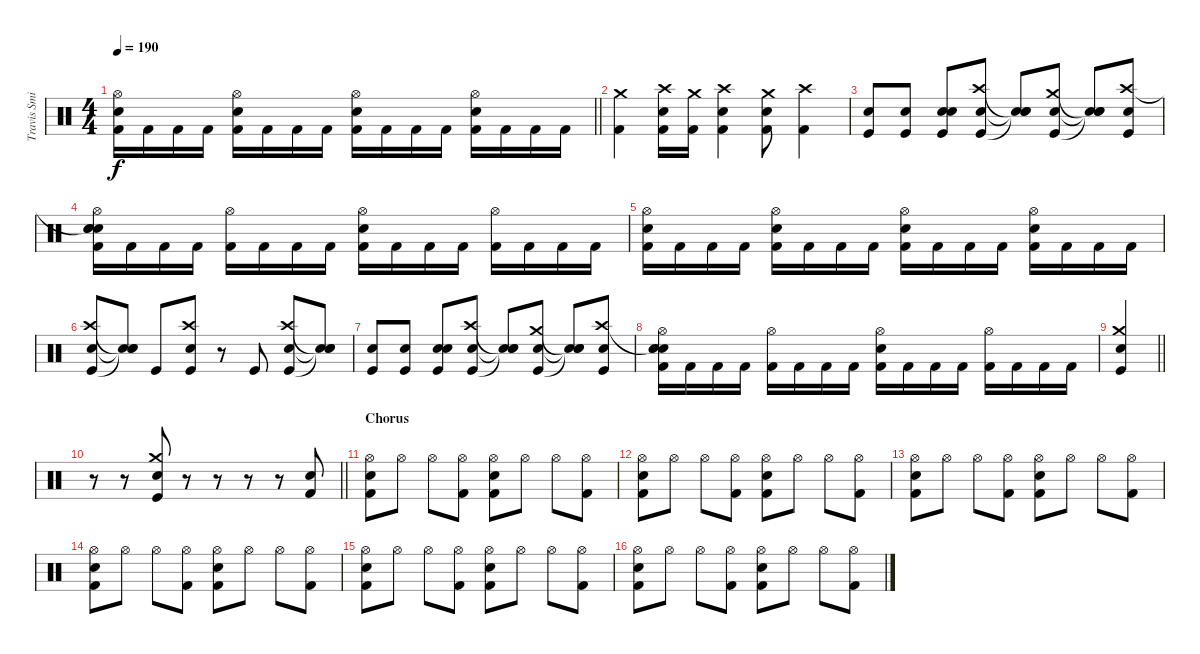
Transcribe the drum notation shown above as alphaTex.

\track ("Travis Smith" "Travis Smi") {instrument percussion}
\staff {score}
\articulation defaults
\ts (4 4)
\tempo 190
\clef neutral
\barLineRight lightlight
\ks c
("Hi-Hat (open)" "Electric Snare (hit)" "Kick (hit) 2").16{dy f} "Kick (hit) 2".16 "Kick (hit) 2".16 "Kick (hit) 2".16 ("Hi-Hat (open)" "Electric Snare (hit)" "Kick (hit) 2").16 "Kick (hit) 2".16 "Kick (hit) 2".16 "Kick (hit) 2".16 ("Hi-Hat (open)" "Electric Snare (hit)" "Kick (hit) 2").16 "Kick (hit) 2".16 "Kick (hit) 2".16 "Kick (hit) 2".16 ("Hi-Hat (open)" "Electric Snare (hit)" "Kick (hit) 2").16 "Kick (hit) 2".16 "Kick (hit) 2".16 "Kick (hit) 2".16 |
("Crash medium (hit)" "Kick (hit) 2").4 ("Crash high (hit)" "Electric Snare (hit)" "Kick (hit) 2").16 ("Crash medium (hit)" "Kick (hit) 2").16 ("Crash high (hit)" "Electric Snare (hit)" "Kick (hit) 2").4 ("Crash medium (hit)" "Electric Snare (hit)" "Kick (hit) 2").8 ("Crash high (hit)" "Kick (hit) 2").4 |
("Snare (hit) 2" "Kick (hit)").8 ("Snare (hit) 2" "Kick (hit)").8 ("Electric Snare (hit)" "Snare (hit) 2" "Kick (hit)").8 ("Crash high (hit)" "Electric Snare (hit)" "Kick (hit)").8 ("Snare (hit)"{t} "Snare (hit)"{t} "Snare (hit)"{t}).8 ("Crash medium (hit)" "Electric Snare (hit)" "Kick (hit)").8 ("Snare (hit)"{t} "Snare (hit)"{t} "Snare (hit)"{t}).8 ("Crash high (hit)" "Electric Snare (hit)" "Kick (hit)").8 |
("Snare (hit)"{t} "Hi-Hat (open)" "Electric Snare (hit)" "Snare (hit)" "Kick (hit) 2").16 "Kick (hit) 2".16 "Kick (hit) 2".16 "Kick (hit) 2".16 ("Hi-Hat (open)" "Kick (hit) 2").16 "Kick (hit) 2".16 "Kick (hit) 2".16 "Kick (hit) 2".16 ("Hi-Hat (open)" "Electric Snare (hit)" "Kick (hit) 2").16 "Kick (hit) 2".16 "Kick (hit) 2".16 "Kick (hit) 2".16 ("Hi-Hat (open)" "Kick (hit) 2").16 "Kick (hit) 2".16 "Kick (hit) 2".16 "Kick (hit) 2".16 |
("Hi-Hat (open)" "Electric Snare (hit)" "Kick (hit) 2").16 "Kick (hit) 2".16 "Kick (hit) 2".16 "Kick (hit) 2".16 ("Hi-Hat (open)" "Electric Snare (hit)" "Kick (hit) 2").16 "Kick (hit) 2".16 "Kick (hit) 2".16 "Kick (hit) 2".16 ("Hi-Hat (open)" "Electric Snare (hit)" "Kick (hit) 2").16 "Kick (hit) 2".16 "Kick (hit) 2".16 "Kick (hit) 2".16 ("Hi-Hat (open)" "Electric Snare (hit)" "Kick (hit) 2").16 "Kick (hit) 2".16 "Kick (hit) 2".16 "Kick (hit) 2".16 |
("Crash high (hit)" "Electric Snare (hit)" "Kick (hit)").8 ("Snare (hit)"{t} "Snare (hit)"{t} "Snare (hit)"{t}).8 "Kick (hit)".8 ("Crash high (hit)" "Electric Snare (hit)" "Kick (hit)").8 r.8 "Kick (hit)".8 ("Crash high (hit)" "Electric Snare (hit)" "Kick (hit)").8 ("Snare (hit)"{t} "Snare (hit)"{t} "Snare (hit)"{t}).8 |
("Snare (hit) 2" "Kick (hit)").8 ("Snare (hit) 2" "Kick (hit)").8 ("Electric Snare (hit)" "Snare (hit) 2" "Kick (hit)").8 ("Crash high (hit)" "Electric Snare (hit)" "Kick (hit)").8 ("Snare (hit)"{t} "Snare (hit)"{t} "Snare (hit)"{t}).8 ("Crash medium (hit)" "Electric Snare (hit)" "Kick (hit)").8 ("Snare (hit)"{t} "Snare (hit)"{t} "Snare (hit)"{t}).8 ("Crash high (hit)" "Electric Snare (hit)" "Kick (hit)").8 |
("Snare (hit)"{t} "Hi-Hat (open)" "Electric Snare (hit)" "Snare (hit)" "Kick (hit) 2").16 "Kick (hit) 2".16 "Kick (hit) 2".16 "Kick (hit) 2".16 ("Hi-Hat (open)" "Kick (hit) 2").16 "Kick (hit) 2".16 "Kick (hit) 2".16 "Kick (hit) 2".16 ("Hi-Hat (open)" "Electric Snare (hit)" "Kick (hit) 2").16 "Kick (hit) 2".16 "Kick (hit) 2".16 "Kick (hit) 2".16 ("Hi-Hat (open)" "Kick (hit) 2").16 "Kick (hit) 2".16 "Kick (hit) 2".16 "Kick (hit) 2".16 |
\barLineRight lightlight
("Crash medium (hit)" "Electric Snare (hit)" "Kick (hit)").4 |
\barLineRight lightlight
r.8 r.8 ("Crash medium (hit)" "Electric Snare (hit)" "Kick (hit)").8 r.8 r.8 r.8 r.8 ("Electric Snare (hit)" "Kick (hit) 2").8 |
\section ("" "Chorus")
("Hi-Hat (open)" "Electric Snare (hit)" "Kick (hit) 2").8 "Hi-Hat (open)".8 "Hi-Hat (open)".8 ("Hi-Hat (open)" "Kick (hit) 2").8 ("Hi-Hat (open)" "Electric Snare (hit)" "Kick (hit) 2").8 "Hi-Hat (open)".8 "Hi-Hat (open)".8 ("Hi-Hat (open)" "Kick (hit) 2").8 |
("Hi-Hat (open)" "Electric Snare (hit)" "Kick (hit) 2").8 "Hi-Hat (open)".8 "Hi-Hat (open)".8 ("Hi-Hat (open)" "Kick (hit) 2").8 ("Hi-Hat (open)" "Electric Snare (hit)" "Kick (hit) 2").8 "Hi-Hat (open)".8 "Hi-Hat (open)".8 ("Hi-Hat (open)" "Kick (hit) 2").8 |
("Hi-Hat (open)" "Electric Snare (hit)" "Kick (hit) 2").8 "Hi-Hat (open)".8 "Hi-Hat (open)".8 ("Hi-Hat (open)" "Kick (hit) 2").8 ("Hi-Hat (open)" "Electric Snare (hit)" "Kick (hit) 2").8 "Hi-Hat (open)".8 "Hi-Hat (open)".8 ("Hi-Hat (open)" "Kick (hit) 2").8 |
("Hi-Hat (open)" "Electric Snare (hit)" "Kick (hit) 2").8 "Hi-Hat (open)".8 "Hi-Hat (open)".8 ("Hi-Hat (open)" "Kick (hit) 2").8 ("Hi-Hat (open)" "Electric Snare (hit)" "Kick (hit) 2").8 "Hi-Hat (open)".8 "Hi-Hat (open)".8 ("Hi-Hat (open)" "Kick (hit) 2").8 |
("Hi-Hat (open)" "Electric Snare (hit)" "Kick (hit) 2").8 "Hi-Hat (open)".8 "Hi-Hat (open)".8 ("Hi-Hat (open)" "Kick (hit) 2").8 ("Hi-Hat (open)" "Electric Snare (hit)" "Kick (hit) 2").8 "Hi-Hat (open)".8 "Hi-Hat (open)".8 ("Hi-Hat (open)" "Kick (hit) 2").8 |
("Hi-Hat (open)" "Electric Snare (hit)" "Kick (hit) 2").8 "Hi-Hat (open)".8 "Hi-Hat (open)".8 ("Hi-Hat (open)" "Kick (hit) 2").8 ("Hi-Hat (open)" "Electric Snare (hit)" "Kick (hit) 2").8 "Hi-Hat (open)".8 "Hi-Hat (open)".8 ("Hi-Hat (open)" "Kick (hit) 2").8
